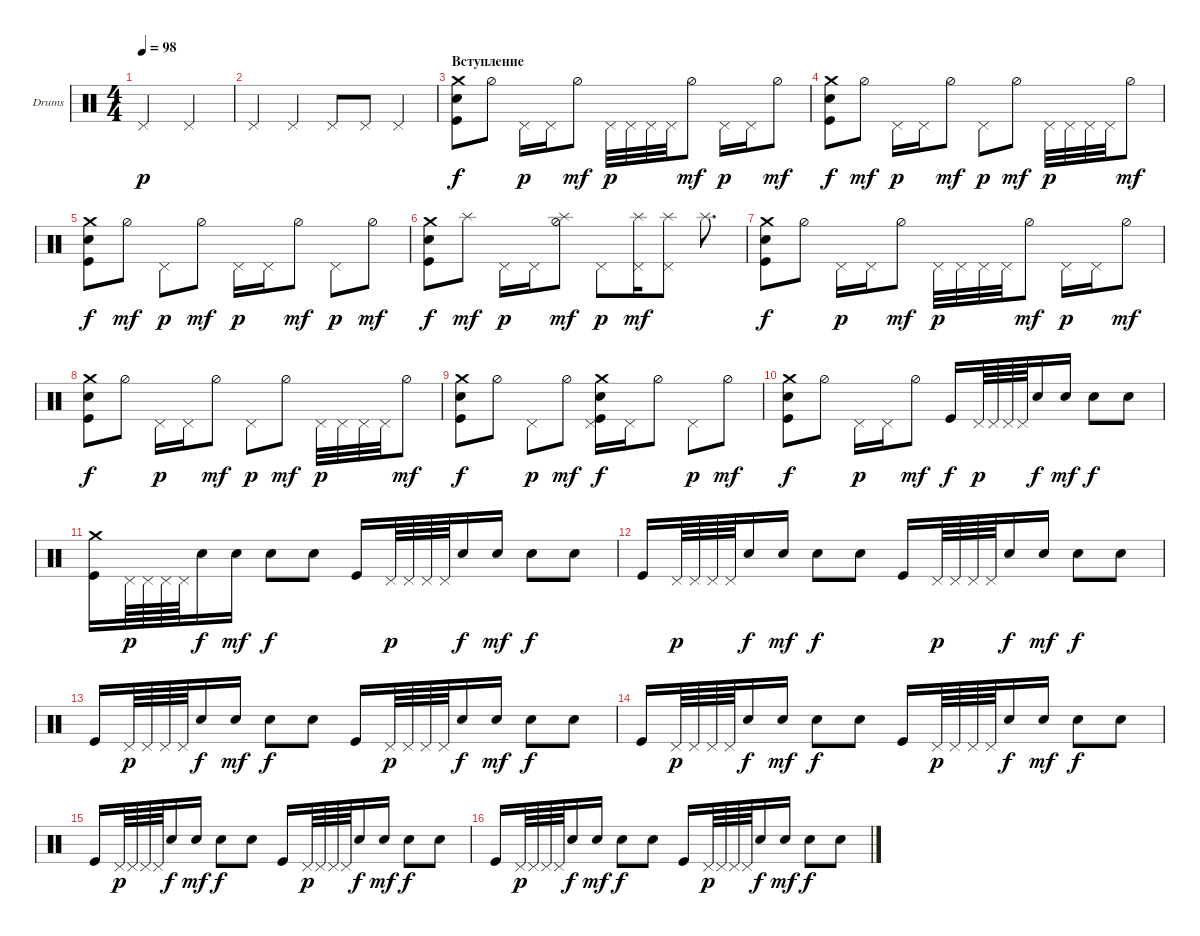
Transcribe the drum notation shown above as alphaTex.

\defaultSystemsLayout 4
\bracketExtendMode groupsimilarinstruments
\firstSystemTrackNameOrientation horizontal
\otherSystemsTrackNameOrientation horizontal
\track ("Е. Кулаков" "Drums") {instrument percussion}
\staff {score}
\articulation defaults
\ts (4 4)
\tempo 98
\clef neutral
\ks c "Pedal Hi-Hat (hit)".2{dy p} "Pedal Hi-Hat (hit)".2
|
"Pedal Hi-Hat (hit)".4 "Pedal Hi-Hat (hit)".4 "Pedal Hi-Hat (hit)".8 "Pedal Hi-Hat (hit)".8 "Pedal Hi-Hat (hit)".4 |
\section ("" "Вступление")
("Kick (hit)" "Snare (hit) 2" "Crash medium (hit)").8{dy f} "Hi-Hat (half)".8 "Pedal Hi-Hat (hit)".16{dy p} "Pedal Hi-Hat (hit)".16 "Hi-Hat (half)".8{dy mf} "Pedal Hi-Hat (hit)".32{dy p} "Pedal Hi-Hat (hit)".32 "Pedal Hi-Hat (hit)".32 "Pedal Hi-Hat (hit)".32 "Hi-Hat (half)".8{dy mf} "Pedal Hi-Hat (hit)".16{dy p} "Pedal Hi-Hat (hit)".16 "Hi-Hat (half)".8{dy mf} |
("Kick (hit)" "Snare (hit) 2" "Crash medium (hit)").8{dy f} "Hi-Hat (half)".8{dy mf} "Pedal Hi-Hat (hit)".16{dy p} "Pedal Hi-Hat (hit)".16 "Hi-Hat (half)".8{dy mf} "Pedal Hi-Hat (hit)".8{dy p} "Hi-Hat (half)".8{dy mf} "Pedal Hi-Hat (hit)".32{dy p} "Pedal Hi-Hat (hit)".32 "Pedal Hi-Hat (hit)".32 "Pedal Hi-Hat (hit)".32 "Hi-Hat (half)".8{dy mf} |
("Kick (hit)" "Snare (hit) 2" "Crash medium (hit)").8{dy f} "Hi-Hat (half)".8{dy mf} "Pedal Hi-Hat (hit)".8{dy p} "Hi-Hat (half)".8{dy mf} "Pedal Hi-Hat (hit)".16{dy p} "Pedal Hi-Hat (hit)".16 "Hi-Hat (half)".8{dy mf} "Pedal Hi-Hat (hit)".8{dy p} "Hi-Hat (half)".8{dy mf} |
("Kick (hit)" "Snare (hit) 2" "Crash medium (hit)").8{dy f} "Splash (hit)".8{dy mf} "Pedal Hi-Hat (hit)".16{dy p} "Pedal Hi-Hat (hit)".16 ("Hi-Hat (half)" "Splash (hit)").8{dy mf} "Pedal Hi-Hat (hit)".8{dy p} ("Pedal Hi-Hat (hit)" "Splash (hit)").16{dy mf} ("Pedal Hi-Hat (hit)" "Splash (hit)").8 "Splash (hit)".8{d} |
("Kick (hit)" "Snare (hit) 2" "Crash medium (hit)").8{dy f} "Hi-Hat (half)".8 "Pedal Hi-Hat (hit)".16{dy p} "Pedal Hi-Hat (hit)".16 "Hi-Hat (half)".8{dy mf} "Pedal Hi-Hat (hit)".32{dy p} "Pedal Hi-Hat (hit)".32 "Pedal Hi-Hat (hit)".32 "Pedal Hi-Hat (hit)".32 "Hi-Hat (half)".8{dy mf} "Pedal Hi-Hat (hit)".16{dy p} "Pedal Hi-Hat (hit)".16 "Hi-Hat (half)".8{dy mf} |
("Kick (hit)" "Snare (hit) 2" "Crash medium (hit)").8{dy f} "Hi-Hat (half)".8 "Pedal Hi-Hat (hit)".16{dy p} "Pedal Hi-Hat (hit)".16 "Hi-Hat (half)".8{dy mf} "Pedal Hi-Hat (hit)".8{dy p} "Hi-Hat (half)".8{dy mf} "Pedal Hi-Hat (hit)".32{dy p} "Pedal Hi-Hat (hit)".32 "Pedal Hi-Hat (hit)".32 "Pedal Hi-Hat (hit)".32 "Hi-Hat (half)".8{dy mf} |
("Kick (hit)" "Snare (hit) 2" "Crash medium (hit)").8{dy f} "Hi-Hat (half)".8 "Pedal Hi-Hat (hit)".8{dy p} "Hi-Hat (half)".8{dy mf} ("Pedal Hi-Hat (hit)" "Kick (hit)" "Snare (hit) 2" "Crash medium (hit)").16{dy f} "Pedal Hi-Hat (hit)".16 "Hi-Hat (half)".8 "Pedal Hi-Hat (hit)".8{dy p} "Hi-Hat (half)".8{dy mf} |
("Kick (hit)" "Snare (hit) 2" "Crash medium (hit)").8{dy f} "Hi-Hat (half)".8 "Pedal Hi-Hat (hit)".16{dy p} "Pedal Hi-Hat (hit)".16 "Hi-Hat (half)".8{dy mf} "Kick (hit)".16{dy f} "Pedal Hi-Hat (hit)".64{dy p} "Pedal Hi-Hat (hit)".64 "Pedal Hi-Hat (hit)".64 "Pedal Hi-Hat (hit)".64 "Snare (hit) 2".16{dy f} "Snare (hit) 2".16{dy mf} "Snare (hit) 2".8{dy f} "Snare (hit) 2".8 |
("Kick (hit)" "Crash medium (hit)").16 "Pedal Hi-Hat (hit)".64{dy p} "Pedal Hi-Hat (hit)".64 "Pedal Hi-Hat (hit)".64 "Pedal Hi-Hat (hit)".64 "Snare (hit) 2".16{dy f} "Snare (hit) 2".16{dy mf} "Snare (hit) 2".8{dy f} "Snare (hit) 2".8 "Kick (hit)".16 "Pedal Hi-Hat (hit)".64{dy p} "Pedal Hi-Hat (hit)".64 "Pedal Hi-Hat (hit)".64 "Pedal Hi-Hat (hit)".64 "Snare (hit) 2".16{dy f} "Snare (hit) 2".16{dy mf} "Snare (hit) 2".8{dy f} "Snare (hit) 2".8 |
"Kick (hit)".16 "Pedal Hi-Hat (hit)".64{dy p} "Pedal Hi-Hat (hit)".64 "Pedal Hi-Hat (hit)".64 "Pedal Hi-Hat (hit)".64 "Snare (hit) 2".16{dy f} "Snare (hit) 2".16{dy mf} "Snare (hit) 2".8{dy f} "Snare (hit) 2".8 "Kick (hit)".16 "Pedal Hi-Hat (hit)".64{dy p} "Pedal Hi-Hat (hit)".64 "Pedal Hi-Hat (hit)".64 "Pedal Hi-Hat (hit)".64 "Snare (hit) 2".16{dy f} "Snare (hit) 2".16{dy mf} "Snare (hit) 2".8{dy f} "Snare (hit) 2".8 |
"Kick (hit)".16 "Pedal Hi-Hat (hit)".64{dy p} "Pedal Hi-Hat (hit)".64 "Pedal Hi-Hat (hit)".64 "Pedal Hi-Hat (hit)".64 "Snare (hit) 2".16{dy f} "Snare (hit) 2".16{dy mf} "Snare (hit) 2".8{dy f} "Snare (hit) 2".8 "Kick (hit)".16 "Pedal Hi-Hat (hit)".64{dy p} "Pedal Hi-Hat (hit)".64 "Pedal Hi-Hat (hit)".64 "Pedal Hi-Hat (hit)".64 "Snare (hit) 2".16{dy f} "Snare (hit) 2".16{dy mf} "Snare (hit) 2".8{dy f} "Snare (hit) 2".8 |
"Kick (hit)".16 "Pedal Hi-Hat (hit)".64{dy p} "Pedal Hi-Hat (hit)".64 "Pedal Hi-Hat (hit)".64 "Pedal Hi-Hat (hit)".64 "Snare (hit) 2".16{dy f} "Snare (hit) 2".16{dy mf} "Snare (hit) 2".8{dy f} "Snare (hit) 2".8 "Kick (hit)".16 "Pedal Hi-Hat (hit)".64{dy p} "Pedal Hi-Hat (hit)".64 "Pedal Hi-Hat (hit)".64 "Pedal Hi-Hat (hit)".64 "Snare (hit) 2".16{dy f} "Snare (hit) 2".16{dy mf} "Snare (hit) 2".8{dy f} "Snare (hit) 2".8 |
"Kick (hit)".16 "Pedal Hi-Hat (hit)".64{dy p} "Pedal Hi-Hat (hit)".64 "Pedal Hi-Hat (hit)".64 "Pedal Hi-Hat (hit)".64 "Snare (hit) 2".16{dy f} "Snare (hit) 2".16{dy mf} "Snare (hit) 2".8{dy f} "Snare (hit) 2".8 "Kick (hit)".16 "Pedal Hi-Hat (hit)".64{dy p} "Pedal Hi-Hat (hit)".64 "Pedal Hi-Hat (hit)".64 "Pedal Hi-Hat (hit)".64 "Snare (hit) 2".16{dy f} "Snare (hit) 2".16{dy mf} "Snare (hit) 2".8{dy f} "Snare (hit) 2".8 |
"Kick (hit)".16 "Pedal Hi-Hat (hit)".64{dy p} "Pedal Hi-Hat (hit)".64 "Pedal Hi-Hat (hit)".64 "Pedal Hi-Hat (hit)".64 "Snare (hit) 2".16{dy f} "Snare (hit) 2".16{dy mf} "Snare (hit) 2".8{dy f} "Snare (hit) 2".8 "Kick (hit)".16 "Pedal Hi-Hat (hit)".64{dy p} "Pedal Hi-Hat (hit)".64 "Pedal Hi-Hat (hit)".64 "Pedal Hi-Hat (hit)".64 "Snare (hit) 2".16{dy f} "Snare (hit) 2".16{dy mf} "Snare (hit) 2".8{dy f} "Snare (hit) 2".8
